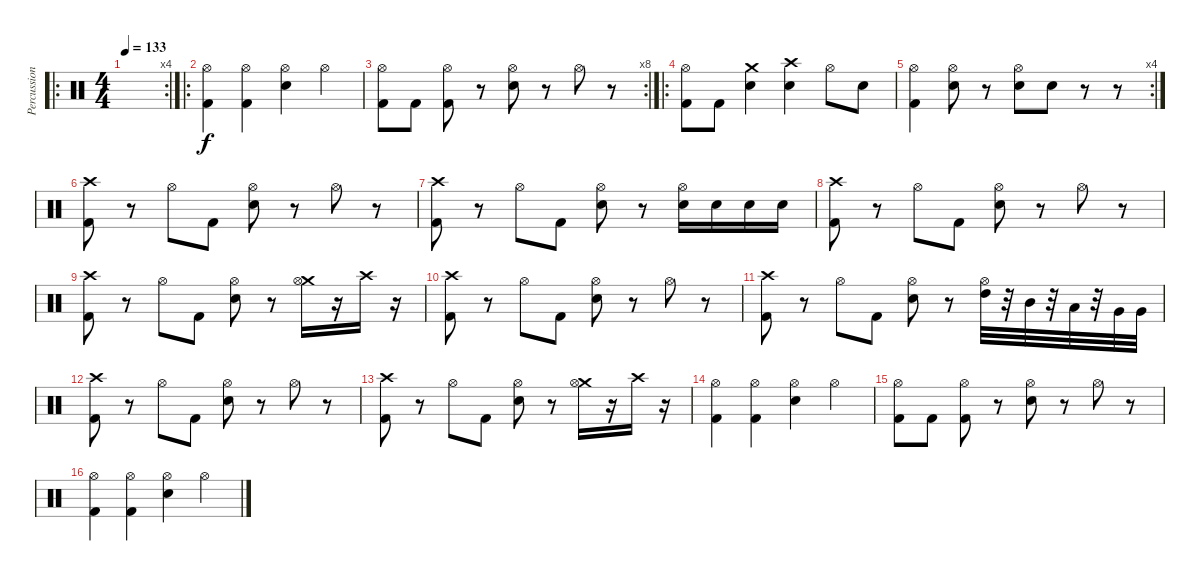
\track ("Percussion" "Percussion") {instrument percussion}
\staff {score}
\articulation defaults
\ro
\rc 4
\ts (4 4)
\tempo 133
\clef neutral
\ks c
|
\ro
("Hi-Hat (open)" "Kick (hit) 2").4 ("Hi-Hat (open)" "Kick (hit) 2").4 ("Hi-Hat (open)" "Snare (hit) 2").4 "Hi-Hat (open)".4 |
\rc 8
("Hi-Hat (open)" "Kick (hit) 2").8 "Kick (hit) 2".8 ("Hi-Hat (open)" "Kick (hit) 2").8 r.8 ("Hi-Hat (open)" "Electric Snare (hit)").8 r.8 "Hi-Hat (open)".8 r.8 |
\ro
("Hi-Hat (open)" "Kick (hit) 2").8 "Kick (hit) 2".8 ("Crash medium (hit)" "Electric Snare (hit)").4 ("Crash high (hit)" "Electric Snare (hit)").4 "Hi-Hat (open)".8 "Electric Snare (hit)".8 |
\rc 4
("Hi-Hat (open)" "Kick (hit) 2").4 ("Hi-Hat (open)" "Electric Snare (hit)").8 r.8 ("Hi-Hat (open)" "Electric Snare (hit)").8 "Electric Snare (hit)".8 r.8 r.8 |
("Crash high (hit)" "Kick (hit) 2").8 r.8 "Hi-Hat (open)".8 "Kick (hit) 2".8 ("Electric Snare (hit)" "Hi-Hat (open)").8 r.8 "Hi-Hat (open)".8 r.8 |
("Crash high (hit)" "Kick (hit) 2").8 r.8 "Hi-Hat (open)".8 "Kick (hit) 2".8 ("Electric Snare (hit)" "Hi-Hat (open)").8 r.8 ("Electric Snare (hit)" "Hi-Hat (open)").16 "Electric Snare (hit)".16 "Electric Snare (hit)".16 "Electric Snare (hit)".16 |
("Crash high (hit)" "Kick (hit) 2").8 r.8 "Hi-Hat (open)".8 "Kick (hit) 2".8 ("Electric Snare (hit)" "Hi-Hat (open)").8 r.8 "Hi-Hat (open)".8 r.8 |
("Crash high (hit)" "Kick (hit) 2").8 r.8 "Hi-Hat (open)".8 "Kick (hit) 2".8 ("Electric Snare (hit)" "Hi-Hat (open)").8 r.8 ("Crash medium (hit)" "Hi-Hat (open)").16 r.16 "Crash high (hit)".16 r.16 |
("Crash high (hit)" "Kick (hit) 2").8 r.8 "Hi-Hat (open)".8 "Kick (hit) 2".8 ("Electric Snare (hit)" "Hi-Hat (open)").8 r.8 "Hi-Hat (open)".8 r.8 |
("Crash high (hit)" "Kick (hit) 2").8 r.8 "Hi-Hat (open)".8 "Kick (hit) 2".8 ("Electric Snare (hit)" "Hi-Hat (open)").8 r.8 ("High Tom (hit)" "Hi-Hat (open)").32 r.32 "Mid Tom (hit)".32 r.32 "Low Tom (hit)".32 r.32 "Very Low Tom (hit)".32 "Very Low Tom (hit)".32 |
("Crash high (hit)" "Kick (hit) 2").8 r.8 "Hi-Hat (open)".8 "Kick (hit) 2".8 ("Electric Snare (hit)" "Hi-Hat (open)").8 r.8 "Hi-Hat (open)".8 r.8 |
("Crash high (hit)" "Kick (hit) 2").8 r.8 "Hi-Hat (open)".8 "Kick (hit) 2".8 ("Electric Snare (hit)" "Hi-Hat (open)").8 r.8 ("Crash medium (hit)" "Hi-Hat (open)").16 r.16 "Crash high (hit)".16 r.16 |
("Hi-Hat (open)" "Kick (hit) 2").4 ("Hi-Hat (open)" "Kick (hit) 2").4 ("Hi-Hat (open)" "Electric Snare (hit)").4 "Hi-Hat (open)".4 |
("Hi-Hat (open)" "Kick (hit) 2").8 "Kick (hit) 2".8 ("Hi-Hat (open)" "Kick (hit) 2").8 r.8 ("Hi-Hat (open)" "Electric Snare (hit)").8 r.8 "Hi-Hat (open)".8 r.8 |
("Hi-Hat (open)" "Kick (hit) 2").4 ("Hi-Hat (open)" "Kick (hit) 2").4 ("Hi-Hat (open)" "Snare (hit) 2").4 "Hi-Hat (open)".4
